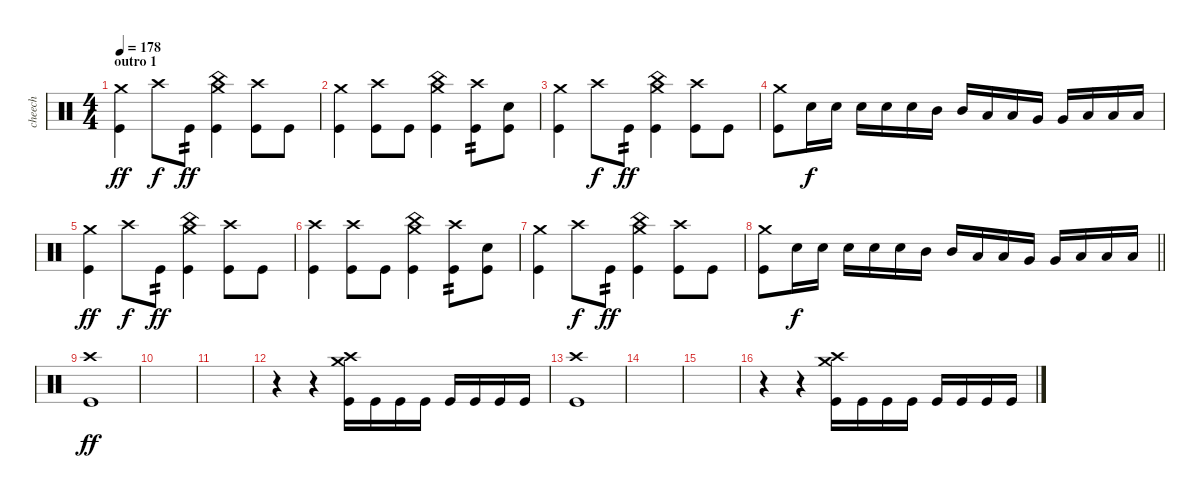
\track ("cheech" "cheech") {solo instrument percussion}
\staff {score}
\articulation defaults
\ts (4 4)
\section ("" "outro 1")
\tempo 178
\clef neutral
\ks c
("Crash medium (hit)" "Kick (hit)").4{dy ff} "Crash high (hit)".8{dy f} "Kick (hit)".8{tp 2 dy ff} ("China (hit)" "Crash medium (hit)" "Kick (hit)").4 ("Crash high (hit)" "Kick (hit)").8 "Kick (hit)".8 |
("Crash medium (hit)" "Kick (hit)").4 ("Crash high (hit)" "Kick (hit)").8 "Kick (hit)".8 ("China (hit)" "Crash medium (hit)" "Kick (hit)").4 ("Crash high (hit)" "Kick (hit)").8{tp 2} ("Electric Snare (hit)" "Kick (hit)").8 |
("Crash medium (hit)" "Kick (hit)").4 "Crash high (hit)".8{dy f} "Kick (hit)".8{tp 2 dy ff} ("China (hit)" "Crash medium (hit)" "Kick (hit)").4 ("Crash high (hit)" "Kick (hit)").8 "Kick (hit)".8 |
("Crash medium (hit)" "Kick (hit)").8 "Electric Snare (hit)".16{dy f} "Electric Snare (hit)".16 "Electric Snare (hit)".16 "Electric Snare (hit)".16 "Electric Snare (hit)".16 "Mid Tom (hit)".16 "Mid Tom (hit)".16 "Low Tom (hit)".16 "Low Tom (hit)".16 "Very Low Tom (hit)".16 "Very Low Tom (hit)".16 "Low Floor Tom (hit)".16 "Low Floor Tom (hit)".16 "Low Floor Tom (hit)".16 |
("Crash medium (hit)" "Kick (hit)").4{dy ff} "Crash high (hit)".8{dy f} "Kick (hit)".8{tp 2 dy ff} ("China (hit)" "Crash medium (hit)" "Kick (hit)").4 ("Crash high (hit)" "Kick (hit)").8 "Kick (hit)".8 |
("Crash high (hit)" "Kick (hit)").4 ("Crash high (hit)" "Kick (hit)").8 "Kick (hit)".8 ("China (hit)" "Crash medium (hit)" "Kick (hit)").4 ("Crash high (hit)" "Kick (hit)").8{tp 2} ("Electric Snare (hit)" "Kick (hit)").8 |
("Crash medium (hit)" "Kick (hit)").4 "Crash high (hit)".8{dy f} "Kick (hit)".8{tp 2 dy ff} ("China (hit)" "Crash medium (hit)" "Kick (hit)").4 ("Crash high (hit)" "Kick (hit)").8 "Kick (hit)".8 |
\barLineRight lightlight
("Crash medium (hit)" "Kick (hit)").8 "Electric Snare (hit)".16{dy f} "Electric Snare (hit)".16 "Electric Snare (hit)".16 "Electric Snare (hit)".16 "Electric Snare (hit)".16 "Mid Tom (hit)".16 "Mid Tom (hit)".16 "Low Tom (hit)".16 "Low Tom (hit)".16 "Very Low Tom (hit)".16 "Very Low Tom (hit)".16 "Low Floor Tom (hit)".16 "Low Floor Tom (hit)".16 "Low Floor Tom (hit)".16 |
("Crash high (hit)" "Kick (hit)").1{dy ff} |
|
|
r.4 r.4 ("Crash high (hit)" "Crash medium (hit)" "Kick (hit)").16 "Kick (hit)".16 "Kick (hit)".16 "Kick (hit)".16 "Kick (hit)".16 "Kick (hit)".16 "Kick (hit)".16 "Kick (hit)".16 |
("Crash high (hit)" "Kick (hit)").1 |
|
|
r.4 r.4 ("Crash high (hit)" "Crash medium (hit)" "Kick (hit)").16 "Kick (hit)".16 "Kick (hit)".16 "Kick (hit)".16 "Kick (hit)".16 "Kick (hit)".16 "Kick (hit)".16 "Kick (hit)".16
